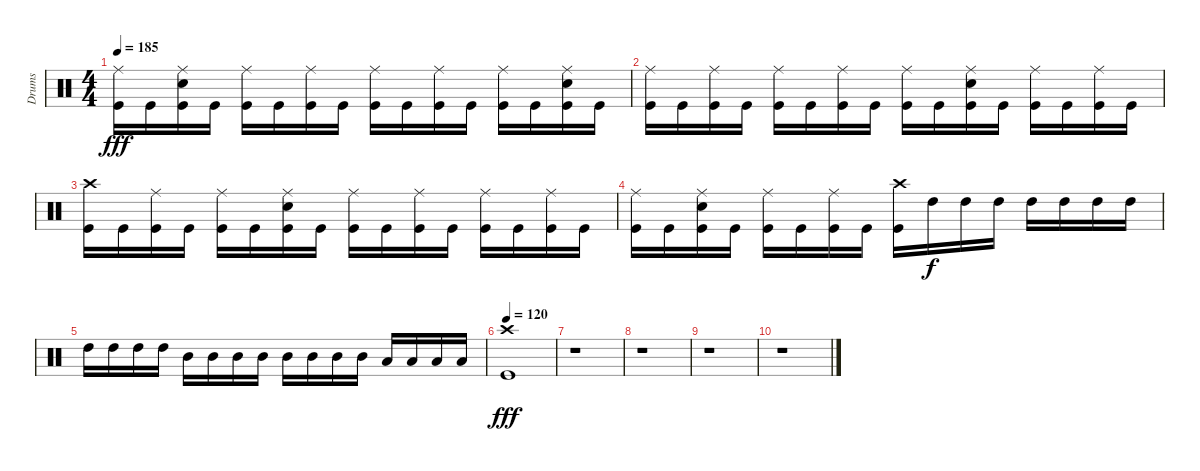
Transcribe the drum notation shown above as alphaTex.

\track ("Drums" "Drums") {instrument percussion}
\staff {score}
\articulation defaults
\ts (4 4)
\tempo 185
\clef neutral
\ks c
("Ride (middle)" "Kick (hit)").16{dy fff} "Kick (hit)".16 ("Ride (middle)" "Electric Snare (hit)" "Kick (hit)").16 "Kick (hit)".16 ("Ride (middle)" "Kick (hit)").16 "Kick (hit)".16 ("Ride (middle)" "Kick (hit)").16 "Kick (hit)".16 ("Ride (middle)" "Kick (hit)").16 "Kick (hit)".16 ("Ride (middle)" "Kick (hit)").16 "Kick (hit)".16 ("Ride (middle)" "Kick (hit)").16 "Kick (hit)".16 ("Ride (middle)" "Electric Snare (hit)" "Kick (hit)").16 "Kick (hit)".16 |
("Ride (middle)" "Kick (hit)").16 "Kick (hit)".16 ("Ride (middle)" "Kick (hit)").16 "Kick (hit)".16 ("Ride (middle)" "Kick (hit)").16 "Kick (hit)".16 ("Ride (middle)" "Kick (hit)").16 "Kick (hit)".16 ("Ride (middle)" "Kick (hit)").16 "Kick (hit)".16 ("Ride (middle)" "Electric Snare (hit)" "Kick (hit)").16 "Kick (hit)".16 ("Ride (middle)" "Kick (hit)").16 "Kick (hit)".16 ("Ride (middle)" "Kick (hit)").16 "Kick (hit)".16 |
("Crash high (hit)" "Kick (hit)").16 "Kick (hit)".16 ("Ride (middle)" "Kick (hit)").16 "Kick (hit)".16 ("Ride (middle)" "Kick (hit)").16 "Kick (hit)".16 ("Ride (middle)" "Electric Snare (hit)" "Kick (hit)").16 "Kick (hit)".16 ("Ride (middle)" "Kick (hit)").16 "Kick (hit)".16 ("Ride (middle)" "Kick (hit)").16 "Kick (hit)".16 ("Ride (middle)" "Kick (hit)").16 "Kick (hit)".16 ("Ride (middle)" "Kick (hit)").16 "Kick (hit)".16 |
("Ride (middle)" "Kick (hit)").16 "Kick (hit)".16 ("Ride (middle)" "Electric Snare (hit)" "Kick (hit)").16 "Kick (hit)".16 ("Ride (middle)" "Kick (hit)").16 "Kick (hit)".16 ("Ride (middle)" "Kick (hit)").16 "Kick (hit)".16 ("Crash high (hit)" "Kick (hit)").16 "High Tom (hit)".16{dy f} "High Tom (hit)".16 "High Tom (hit)".16 "High Tom (hit)".16 "High Tom (hit)".16 "High Tom (hit)".16 "High Tom (hit)".16 |
"High Tom (hit)".16 "High Tom (hit)".16 "High Tom (hit)".16 "High Tom (hit)".16 "Mid Tom (hit)".16 "Mid Tom (hit)".16 "Mid Tom (hit)".16 "Mid Tom (hit)".16 "Mid Tom (hit)".16 "Mid Tom (hit)".16 "Mid Tom (hit)".16 "Mid Tom (hit)".16 "Low Tom (hit)".16 "Low Tom (hit)".16 "Low Tom (hit)".16 "Low Tom (hit)".16 |
\tempo 120
("Crash high (hit)" "Kick (hit)").1{dy fff} |
r.1 |
r.1 |
r.1 |
r.1
